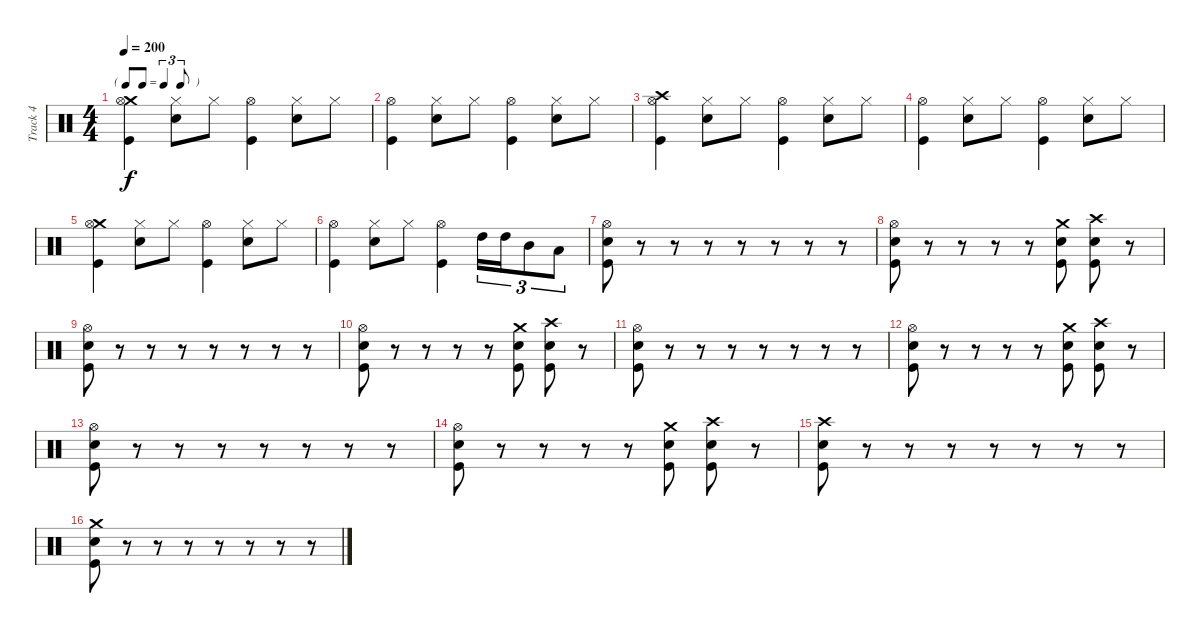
\track ("Track 4" "Track 4") {instrument percussion}
\staff {score}
\articulation defaults
\ts (4 4)
\tf triplet8th
\tempo 200
\clef neutral
\ks c
("Crash medium (hit)" "Hi-Hat (open)" "Kick (hit)").4{dy f} ("Hi-Hat (closed)" "Electric Snare (hit)").8 "Hi-Hat (closed)".8 ("Hi-Hat (open)" "Kick (hit)").4 ("Hi-Hat (closed)" "Electric Snare (hit)").8 "Hi-Hat (closed)".8 |
("Hi-Hat (open)" "Kick (hit)").4 ("Hi-Hat (closed)" "Electric Snare (hit)").8 "Hi-Hat (closed)".8 ("Hi-Hat (open)" "Kick (hit)").4 ("Hi-Hat (closed)" "Electric Snare (hit)").8 "Hi-Hat (closed)".8 |
("Crash high (hit)" "Hi-Hat (open)" "Kick (hit)").4 ("Hi-Hat (closed)" "Electric Snare (hit)").8 "Hi-Hat (closed)".8 ("Hi-Hat (open)" "Kick (hit)").4 ("Hi-Hat (closed)" "Electric Snare (hit)").8 "Hi-Hat (closed)".8 |
("Hi-Hat (open)" "Kick (hit)").4 ("Hi-Hat (closed)" "Electric Snare (hit)").8 "Hi-Hat (closed)".8 ("Hi-Hat (open)" "Kick (hit)").4 ("Hi-Hat (closed)" "Electric Snare (hit)").8 "Hi-Hat (closed)".8 |
("Crash medium (hit)" "Hi-Hat (open)" "Kick (hit)").4 ("Hi-Hat (closed)" "Electric Snare (hit)").8 "Hi-Hat (closed)".8 ("Hi-Hat (open)" "Kick (hit)").4 ("Hi-Hat (closed)" "Electric Snare (hit)").8 "Hi-Hat (closed)".8 |
("Hi-Hat (open)" "Kick (hit)").4 ("Hi-Hat (closed)" "Electric Snare (hit)").8 "Hi-Hat (closed)".8 ("Hi-Hat (open)" "Kick (hit)").4 "High Tom (hit)".16{tu (3 2)} "High Tom (hit)".16{tu (3 2)} "Mid Tom (hit)".8{tu (3 2)} "Low Tom (hit)".8{tu (3 2)} |
("Hi-Hat (open)" "Electric Snare (hit)" "Kick (hit)").8 r.8 r.8 r.8 r.8 r.8 r.8 r.8 |
("Hi-Hat (open)" "Electric Snare (hit)" "Kick (hit)").8 r.8 r.8 r.8 r.8 ("Crash medium (hit)" "Electric Snare (hit)" "Kick (hit)").8 ("Crash high (hit)" "Electric Snare (hit)" "Kick (hit)").8 r.8 |
("Hi-Hat (open)" "Electric Snare (hit)" "Kick (hit)").8 r.8 r.8 r.8 r.8 r.8 r.8 r.8 |
("Hi-Hat (open)" "Electric Snare (hit)" "Kick (hit)").8 r.8 r.8 r.8 r.8 ("Crash medium (hit)" "Electric Snare (hit)" "Kick (hit)").8 ("Crash high (hit)" "Electric Snare (hit)" "Kick (hit)").8 r.8 |
("Hi-Hat (open)" "Electric Snare (hit)" "Kick (hit)").8 r.8 r.8 r.8 r.8 r.8 r.8 r.8 |
("Hi-Hat (open)" "Electric Snare (hit)" "Kick (hit)").8 r.8 r.8 r.8 r.8 ("Crash medium (hit)" "Electric Snare (hit)" "Kick (hit)").8 ("Crash high (hit)" "Electric Snare (hit)" "Kick (hit)").8 r.8 |
("Hi-Hat (open)" "Electric Snare (hit)" "Kick (hit)").8 r.8 r.8 r.8 r.8 r.8 r.8 r.8 |
("Hi-Hat (open)" "Electric Snare (hit)" "Kick (hit)").8 r.8 r.8 r.8 r.8 ("Crash medium (hit)" "Electric Snare (hit)" "Kick (hit)").8 ("Crash high (hit)" "Electric Snare (hit)" "Kick (hit)").8 r.8 |
("Crash high (hit)" "Electric Snare (hit)" "Kick (hit)").8 r.8 r.8 r.8 r.8 r.8 r.8 r.8 |
("Crash medium (hit)" "Electric Snare (hit)" "Kick (hit)").8 r.8 r.8 r.8 r.8 r.8 r.8 r.8
